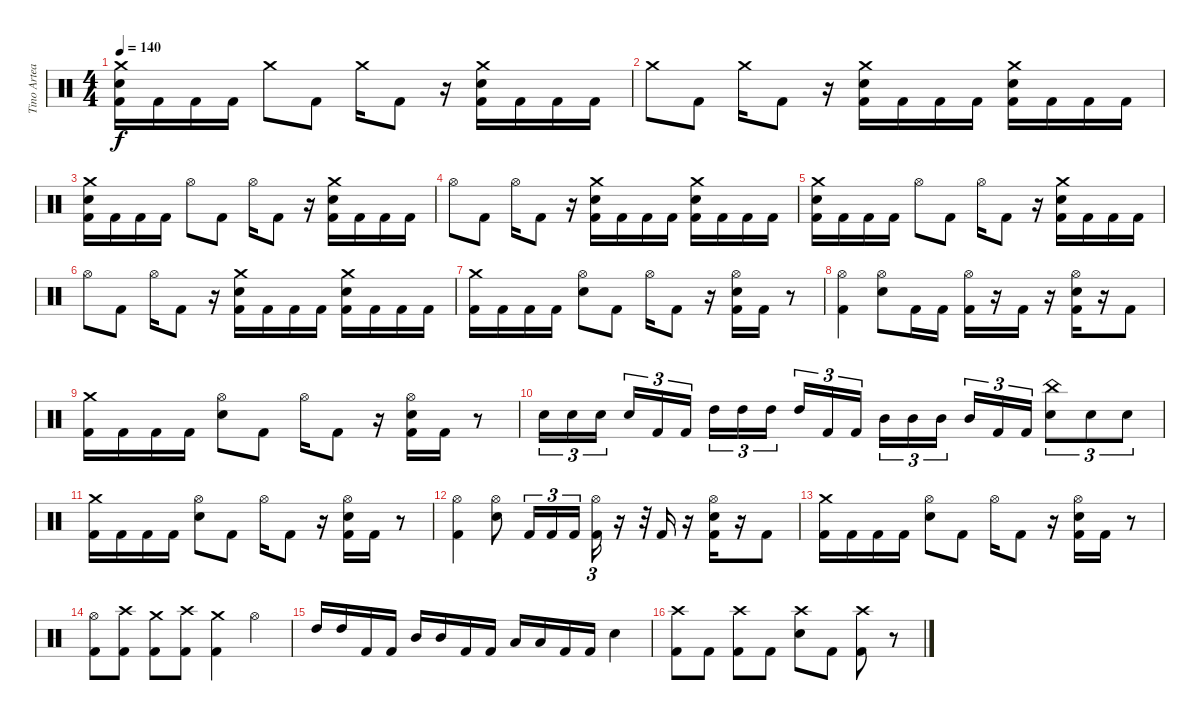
\track ("Tino Arteaga" "Tino Artea") {instrument percussion}
\staff {score}
\articulation defaults
\ts (4 4)
\tempo 140
\clef neutral
\ks c
("Crash medium (hit)" "Electric Snare (hit)" "Kick (hit) 2").16{dy f} "Kick (hit) 2".16 "Kick (hit) 2".16 "Kick (hit) 2".16 "Crash medium (hit)".8 "Kick (hit) 2".8 "Crash medium (hit)".16 "Kick (hit) 2".8 r.16 ("Crash medium (hit)" "Electric Snare (hit)" "Kick (hit) 2").16 "Kick (hit) 2".16 "Kick (hit) 2".16 "Kick (hit) 2".16 |
"Crash medium (hit)".8 "Kick (hit) 2".8 "Crash medium (hit)".16 "Kick (hit) 2".8 r.16 ("Crash medium (hit)" "Electric Snare (hit)" "Kick (hit) 2").16 "Kick (hit) 2".16 "Kick (hit) 2".16 "Kick (hit) 2".16 ("Crash medium (hit)" "Electric Snare (hit)" "Kick (hit) 2").16 "Kick (hit) 2".16 "Kick (hit) 2".16 "Kick (hit) 2".16 |
("Crash medium (hit)" "Electric Snare (hit)" "Kick (hit) 2").16 "Kick (hit) 2".16 "Kick (hit) 2".16 "Kick (hit) 2".16 "Hi-Hat (open)".8 "Kick (hit) 2".8 "Hi-Hat (open)".16 "Kick (hit) 2".8 r.16 ("Crash medium (hit)" "Electric Snare (hit)" "Kick (hit) 2").16 "Kick (hit) 2".16 "Kick (hit) 2".16 "Kick (hit) 2".16 |
"Hi-Hat (open)".8 "Kick (hit) 2".8 "Hi-Hat (open)".16 "Kick (hit) 2".8 r.16 ("Crash medium (hit)" "Electric Snare (hit)" "Kick (hit) 2").16 "Kick (hit) 2".16 "Kick (hit) 2".16 "Kick (hit) 2".16 ("Crash medium (hit)" "Electric Snare (hit)" "Kick (hit) 2").16 "Kick (hit) 2".16 "Kick (hit) 2".16 "Kick (hit) 2".16 |
("Crash medium (hit)" "Electric Snare (hit)" "Kick (hit) 2").16 "Kick (hit) 2".16 "Kick (hit) 2".16 "Kick (hit) 2".16 "Hi-Hat (open)".8 "Kick (hit) 2".8 "Hi-Hat (open)".16 "Kick (hit) 2".8 r.16 ("Crash medium (hit)" "Electric Snare (hit)" "Kick (hit) 2").16 "Kick (hit) 2".16 "Kick (hit) 2".16 "Kick (hit) 2".16 |
"Hi-Hat (open)".8 "Kick (hit) 2".8 "Hi-Hat (open)".16 "Kick (hit) 2".8 r.16 ("Crash medium (hit)" "Electric Snare (hit)" "Kick (hit) 2").16 "Kick (hit) 2".16 "Kick (hit) 2".16 "Kick (hit) 2".16 ("Crash medium (hit)" "Electric Snare (hit)" "Kick (hit) 2").16 "Kick (hit) 2".16 "Kick (hit) 2".16 "Kick (hit) 2".16 |
("Crash medium (hit)" "Kick (hit) 2").16 "Kick (hit) 2".16 "Kick (hit) 2".16 "Kick (hit) 2".16 ("Hi-Hat (open)" "Electric Snare (hit)").8 "Kick (hit) 2".8 "Hi-Hat (open)".16 "Kick (hit) 2".8 r.16 ("Hi-Hat (open)" "Electric Snare (hit)" "Kick (hit) 2").16 "Kick (hit) 2".16 r.8 |
("Hi-Hat (open)" "Kick (hit) 2").4 ("Hi-Hat (open)" "Electric Snare (hit)").8 "Kick (hit) 2".16 "Kick (hit) 2".16 ("Hi-Hat (open)" "Kick (hit) 2").16 r.16 "Kick (hit) 2".16 r.16 ("Hi-Hat (open)" "Electric Snare (hit)" "Kick (hit) 2").16 r.16 "Kick (hit) 2".8 |
("Crash medium (hit)" "Kick (hit) 2").16 "Kick (hit) 2".16 "Kick (hit) 2".16 "Kick (hit) 2".16 ("Hi-Hat (open)" "Electric Snare (hit)").8 "Kick (hit) 2".8 "Hi-Hat (open)".16 "Kick (hit) 2".8 r.16 ("Hi-Hat (open)" "Electric Snare (hit)" "Kick (hit) 2").16 "Kick (hit) 2".16 r.8 |
"Electric Snare (hit)".16{tu (3 2)} "Electric Snare (hit)".16{tu (3 2)} "Electric Snare (hit)".16{tu (3 2) beam splitsecondary} "Electric Snare (hit)".16{tu (3 2)} "Kick (hit) 2".16{tu (3 2)} "Kick (hit) 2".16{tu (3 2)} "High Tom (hit)".16{tu (3 2)} "High Tom (hit)".16{tu (3 2)} "High Tom (hit)".16{tu (3 2) beam splitsecondary} "High Tom (hit)".16{tu (3 2)} "Kick (hit) 2".16{tu (3 2)} "Kick (hit) 2".16{tu (3 2)} "Mid Tom (hit)".16{tu (3 2)} "Mid Tom (hit)".16{tu (3 2)} "Mid Tom (hit)".16{tu (3 2) beam splitsecondary} "Mid Tom (hit)".16{tu (3 2)} "Kick (hit) 2".16{tu (3 2)} "Kick (hit) 2".16{tu (3 2)} ("China (hit)" "Electric Snare (hit)").8{tu (3 2)} "Electric Snare (hit)".8{tu (3 2)} "Electric Snare (hit)".8{tu (3 2)} |
("Crash medium (hit)" "Kick (hit) 2").16 "Kick (hit) 2".16 "Kick (hit) 2".16 "Kick (hit) 2".16 ("Hi-Hat (open)" "Electric Snare (hit)").8 "Kick (hit) 2".8 "Hi-Hat (open)".16 "Kick (hit) 2".8 r.16 ("Hi-Hat (open)" "Electric Snare (hit)" "Kick (hit) 2").16 "Kick (hit) 2".16 r.8 |
("Hi-Hat (open)" "Kick (hit) 2").4 ("Hi-Hat (open)" "Electric Snare (hit)").8 "Kick (hit) 2".16{tu (3 2)} "Kick (hit) 2".16{tu (3 2)} "Kick (hit) 2".16{tu (3 2)} ("Hi-Hat (open)" "Kick (hit) 2").16{tu (3 2)} r.16 r.32{tu (3 2)} "Kick (hit) 2".16 r.16 ("Hi-Hat (open)" "Electric Snare (hit)" "Kick (hit) 2").16 r.16 "Kick (hit) 2".8 |
("Crash medium (hit)" "Kick (hit) 2").16 "Kick (hit) 2".16 "Kick (hit) 2".16 "Kick (hit) 2".16 ("Hi-Hat (open)" "Electric Snare (hit)").8 "Kick (hit) 2".8 "Hi-Hat (open)".16 "Kick (hit) 2".8 r.16 ("Hi-Hat (open)" "Electric Snare (hit)" "Kick (hit) 2").16 "Kick (hit) 2".16 r.8 |
("Hi-Hat (open)" "Kick (hit) 2").8 ("Crash high (hit)" "Kick (hit) 2").8 ("Crash medium (hit)" "Kick (hit) 2").8 ("Crash high (hit)" "Kick (hit) 2").8 ("Crash medium (hit)" "Kick (hit) 2").4 "Hi-Hat (open)".4 |
"High Tom (hit)".16 "High Tom (hit)".16 "Kick (hit) 2".16 "Kick (hit) 2".16 "Mid Tom (hit)".16 "Mid Tom (hit)".16 "Kick (hit) 2".16 "Kick (hit) 2".16 "Low Tom (hit)".16 "Low Tom (hit)".16 "Kick (hit) 2".16 "Kick (hit) 2".16 "Electric Snare (hit)".4 |
("Crash high (hit)" "Kick (hit) 2").8 "Kick (hit) 2".8 ("Crash high (hit)" "Kick (hit) 2").8 "Kick (hit) 2".8 ("Crash high (hit)" "Electric Snare (hit)").8 "Kick (hit) 2".8 ("Crash high (hit)" "Kick (hit) 2").8 r.8
